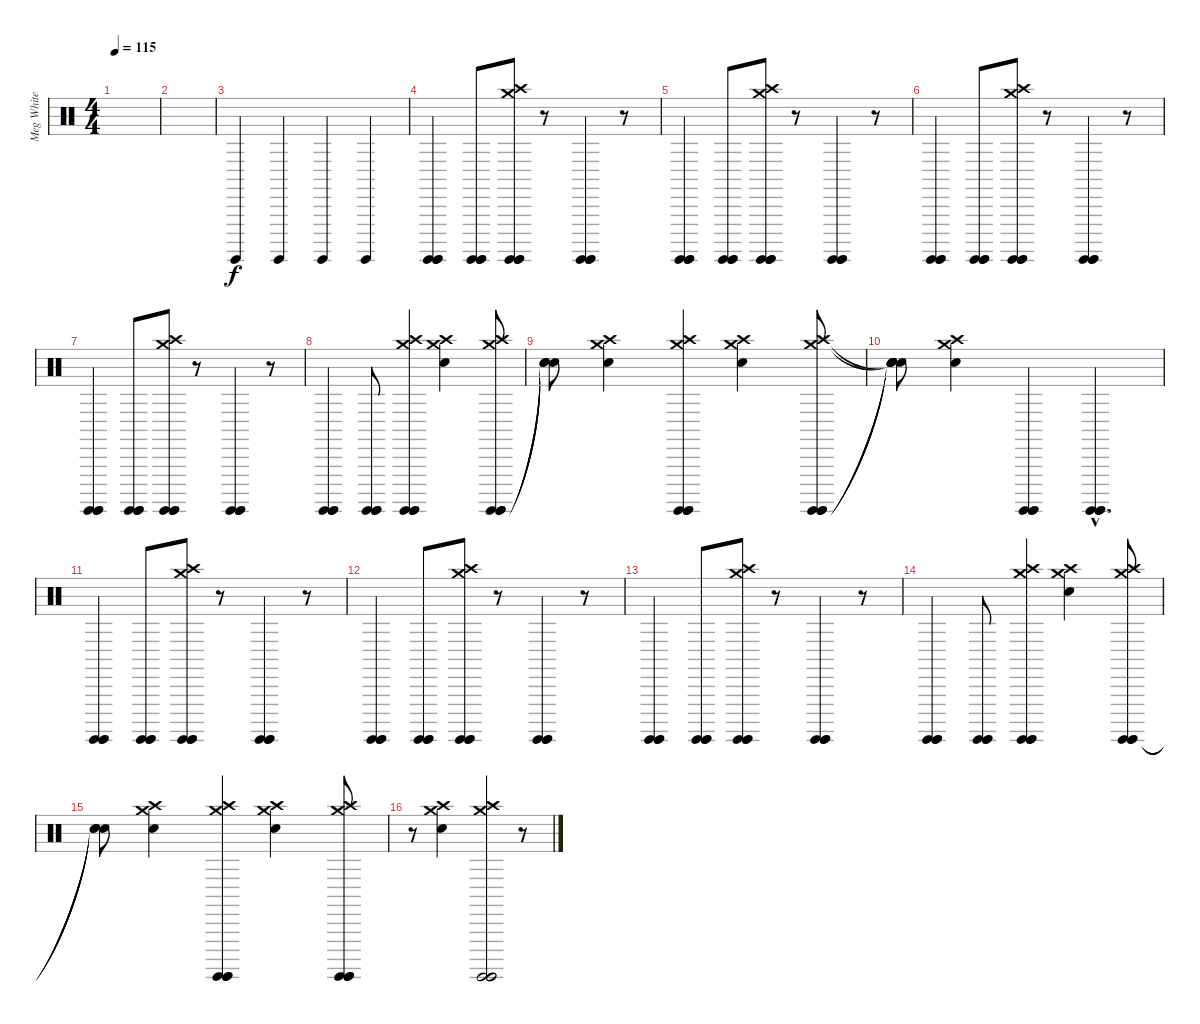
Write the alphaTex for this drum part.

\track ("Meg White" "Meg White") {instrument percussion}
\staff {score}
\articulation defaults
\ts (4 4)
\tempo 115
\clef neutral
\ks c
|
|
"Surdo (hit)".4 "Surdo (hit)".4 "Surdo (hit)".4 "Surdo (hit)".4 |
("Surdo (hit)" "Surdo (hit)" "Surdo (hit)").4 ("Surdo (hit)" "Surdo (hit)" "Surdo (hit)").8 ("Surdo (hit)" "Surdo (hit)" "Surdo (hit)" "Crash medium (hit)" "Crash high (hit)").8 r.8 ("Surdo (hit)" "Surdo (hit)" "Surdo (hit)").4 r.8 |
("Surdo (hit)" "Surdo (hit)" "Surdo (hit)").4 ("Surdo (hit)" "Surdo (hit)" "Surdo (hit)").8 ("Surdo (hit)" "Surdo (hit)" "Surdo (hit)" "Crash medium (hit)" "Crash high (hit)").8 r.8 ("Surdo (hit)" "Surdo (hit)" "Surdo (hit)").4 r.8 |
("Surdo (hit)" "Surdo (hit)" "Surdo (hit)").4 ("Surdo (hit)" "Surdo (hit)" "Surdo (hit)").8 ("Surdo (hit)" "Surdo (hit)" "Surdo (hit)" "Crash medium (hit)" "Crash high (hit)").8 r.8 ("Surdo (hit)" "Surdo (hit)" "Surdo (hit)").4 r.8 |
("Surdo (hit)" "Surdo (hit)" "Surdo (hit)").4 ("Surdo (hit)" "Surdo (hit)" "Surdo (hit)").8 ("Surdo (hit)" "Surdo (hit)" "Surdo (hit)" "Crash medium (hit)" "Crash high (hit)").8 r.8 ("Surdo (hit)" "Surdo (hit)" "Surdo (hit)").4 r.8 |
("Surdo (hit)" "Surdo (hit)" "Surdo (hit)").4 ("Surdo (hit)" "Surdo (hit)" "Surdo (hit)").8 ("Surdo (hit)" "Surdo (hit)" "Surdo (hit)" "Crash medium (hit)" "Crash high (hit)").4 ("Electric Snare (hit)" "Crash medium (hit)" "Crash high (hit)").4 ("Surdo (hit)" "Surdo (hit)" "Surdo (hit)" "Crash medium (hit)" "Crash high (hit)").8 |
("Snare (hit)"{t} "Snare (hit)"{t} "Snare (hit)"{t}).8 ("Electric Snare (hit)" "Crash medium (hit)" "Crash high (hit)").4 ("Surdo (hit)" "Surdo (hit)" "Surdo (hit)" "Crash medium (hit)" "Crash high (hit)").4 ("Electric Snare (hit)" "Crash medium (hit)" "Crash high (hit)").4 ("Surdo (hit)" "Surdo (hit)" "Surdo (hit)" "Crash medium (hit)" "Crash high (hit)").8 |
("Snare (hit)"{t} "Snare (hit)"{t} "Snare (hit)"{t} "Snare (hit)"{t} "Snare (hit)"{t}).8 ("Electric Snare (hit)" "Crash medium (hit)" "Crash high (hit)").4 ("Surdo (hit)" "Surdo (hit)" "Surdo (hit)").4 ("Surdo (hit)"{hac} "Surdo (hit)"{hac} "Surdo (hit)"{hac}).4{d} |
("Surdo (hit)" "Surdo (hit)" "Surdo (hit)").4 ("Surdo (hit)" "Surdo (hit)" "Surdo (hit)").8 ("Surdo (hit)" "Surdo (hit)" "Surdo (hit)" "Crash medium (hit)" "Crash high (hit)").8 r.8 ("Surdo (hit)" "Surdo (hit)" "Surdo (hit)").4 r.8 |
("Surdo (hit)" "Surdo (hit)" "Surdo (hit)").4 ("Surdo (hit)" "Surdo (hit)" "Surdo (hit)").8 ("Surdo (hit)" "Surdo (hit)" "Surdo (hit)" "Crash medium (hit)" "Crash high (hit)").8 r.8 ("Surdo (hit)" "Surdo (hit)" "Surdo (hit)").4 r.8 |
("Surdo (hit)" "Surdo (hit)" "Surdo (hit)").4 ("Surdo (hit)" "Surdo (hit)" "Surdo (hit)").8 ("Surdo (hit)" "Surdo (hit)" "Surdo (hit)" "Crash medium (hit)" "Crash high (hit)").8 r.8 ("Surdo (hit)" "Surdo (hit)" "Surdo (hit)").4 r.8 |
("Surdo (hit)" "Surdo (hit)" "Surdo (hit)").4 ("Surdo (hit)" "Surdo (hit)" "Surdo (hit)").8 ("Surdo (hit)" "Surdo (hit)" "Surdo (hit)" "Crash medium (hit)" "Crash high (hit)").4 ("Electric Snare (hit)" "Crash medium (hit)" "Crash high (hit)").4 ("Surdo (hit)" "Surdo (hit)" "Surdo (hit)" "Crash medium (hit)" "Crash high (hit)").8 |
("Snare (hit)"{t} "Snare (hit)"{t} "Snare (hit)"{t}).8 ("Electric Snare (hit)" "Crash medium (hit)" "Crash high (hit)").4 ("Surdo (hit)" "Surdo (hit)" "Surdo (hit)" "Crash medium (hit)" "Crash high (hit)").4 ("Electric Snare (hit)" "Crash medium (hit)" "Crash high (hit)").4 ("Surdo (hit)" "Surdo (hit)" "Surdo (hit)" "Crash medium (hit)" "Crash high (hit)").8 |
r.8 ("Electric Snare (hit)" "Crash medium (hit)" "Crash high (hit)").4 ("Surdo (hit)" "Surdo (hit)" "Surdo (hit)" "Crash medium (hit)" "Crash high (hit)").2 r.8
